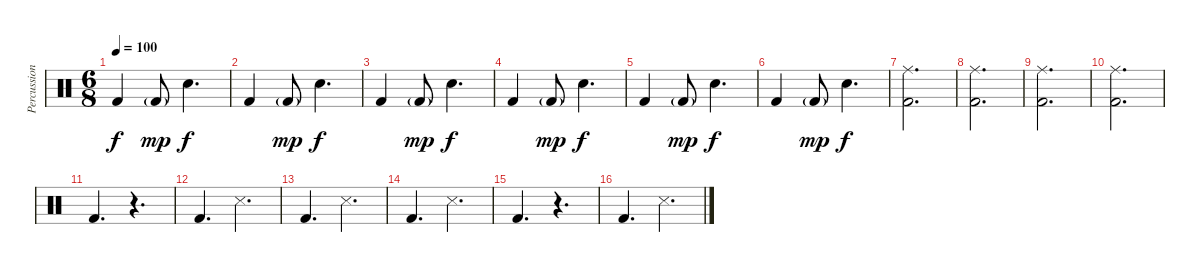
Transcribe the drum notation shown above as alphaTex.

\track ("Percussion" "Percussion") {instrument percussion}
\staff {score}
\articulation defaults
\ts (6 8)
\tempo 100
\clef neutral
\ks c "Kick (hit) 2".4{dy f} "Kick (hit) 2"{g}.8{dy mp} "Snare (hit) 2".4{d dy f}
|
"Kick (hit) 2".4 "Kick (hit) 2"{g}.8{dy mp} "Snare (hit) 2".4{d dy f} |
"Kick (hit) 2".4 "Kick (hit) 2"{g}.8{dy mp} "Snare (hit) 2".4{d dy f} |
"Kick (hit) 2".4 "Kick (hit) 2"{g}.8{dy mp} "Snare (hit) 2".4{d dy f} |
"Kick (hit) 2".4 "Kick (hit) 2"{g}.8{dy mp} "Snare (hit) 2".4{d dy f} |
"Kick (hit) 2".4 "Kick (hit) 2"{g}.8{dy mp} "Snare (hit) 2".4{d dy f} |
("Ride (middle)" "Kick (hit) 2").2{d} |
("Ride (middle)" "Kick (hit) 2").2{d} |
("Ride (middle)" "Kick (hit) 2").2{d} |
("Ride (middle)" "Kick (hit) 2").2{d} |
"Kick (hit) 2".4{d} r.4{d} |
"Kick (hit) 2".4{d} "Snare (side stick) 3".4{d} |
"Kick (hit) 2".4{d} "Snare (side stick) 3".4{d} |
"Kick (hit) 2".4{d} "Snare (side stick) 3".4{d} |
"Kick (hit) 2".4{d} r.4{d} |
"Kick (hit) 2".4{d} "Snare (side stick) 3".4{d}
